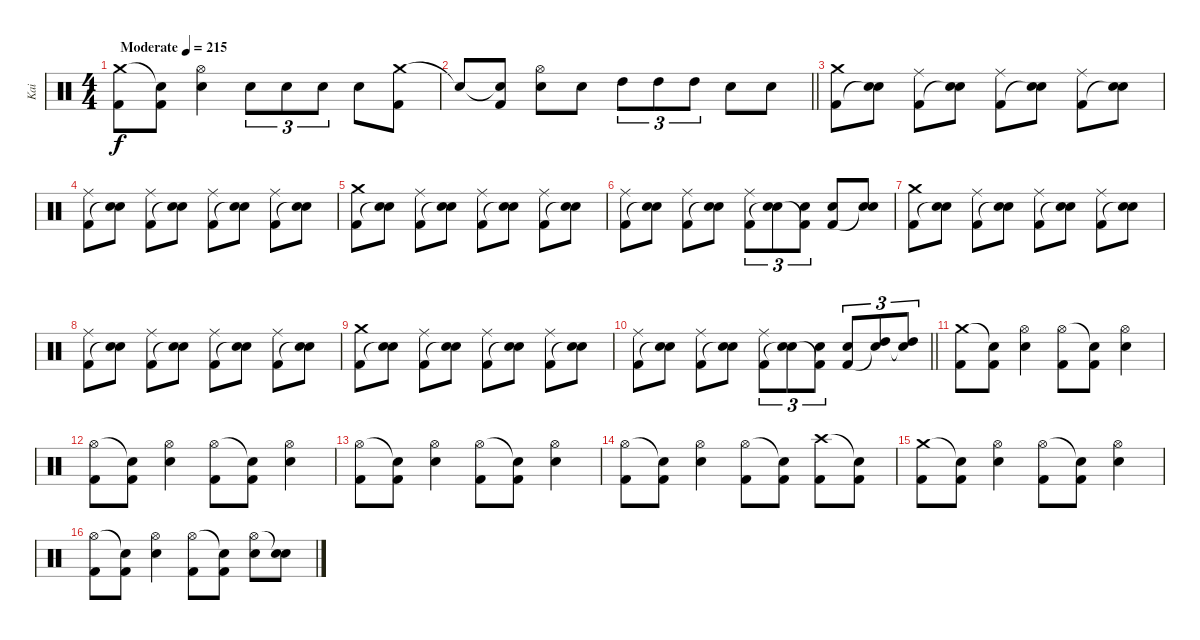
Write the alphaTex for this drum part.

\track ("Kai" "Kai") {instrument percussion}
\staff {score}
\articulation defaults
\ts (4 4)
\tempo (215 "Moderate")
\clef neutral
\ks c
("Crash medium (hit)" "Kick (hit) 2").8{dy f} ("Snare (hit)"{t} "Kick (hit) 2").8 ("Hi-Hat (open)" "Snare (hit) 2").4 "Snare (hit) 2".8{tu (3 2)} "Snare (hit) 2".8{tu (3 2)} "Snare (hit) 2".8{tu (3 2)} "Snare (hit) 2".8 ("Crash medium (hit)" "Kick (hit) 2").8 |
\barLineRight lightlight "Snare (hit)"{t}.8
("Snare (hit)"{t} "Kick (hit) 2").8 ("Hi-Hat (open)" "Snare (hit) 2").8 "Snare (hit) 2".8 "High Tom (hit)".8{tu (3 2)} "High Tom (hit)".8{tu (3 2)} "High Tom (hit)".8{tu (3 2)} "Snare (hit) 2".8 "Snare (hit) 2".8 |
("Crash medium (hit)" "Kick (hit) 2").8 ("Snare (hit) 2" "Snare (hit)"{t}).8 ("Ride (middle)" "Kick (hit) 2").8 ("Snare (hit) 2" "Snare (hit)"{t}).8 ("Ride (middle)" "Kick (hit) 2").8 ("Snare (hit) 2" "Snare (hit)"{t}).8 ("Ride (middle)" "Kick (hit) 2").8 ("Snare (hit) 2" "Snare (hit)"{t}).8 |
("Ride (middle)" "Kick (hit) 2").8 ("Snare (hit) 2" "Snare (hit)"{t}).8 ("Ride (middle)" "Kick (hit) 2").8 ("Snare (hit) 2" "Snare (hit)"{t}).8 ("Ride (middle)" "Kick (hit) 2").8 ("Snare (hit) 2" "Snare (hit)"{t}).8 ("Ride (middle)" "Kick (hit) 2").8 ("Snare (hit) 2" "Snare (hit)"{t}).8 |
("Crash medium (hit)" "Kick (hit) 2").8 ("Snare (hit) 2" "Snare (hit)"{t}).8 ("Ride (middle)" "Kick (hit) 2").8 ("Snare (hit) 2" "Snare (hit)"{t}).8 ("Ride (middle)" "Kick (hit) 2").8 ("Snare (hit) 2" "Snare (hit)"{t}).8 ("Ride (middle)" "Kick (hit) 2").8 ("Snare (hit) 2" "Snare (hit)"{t}).8 |
("Ride (middle)" "Kick (hit) 2").8 ("Snare (hit) 2" "Snare (hit)"{t}).8 ("Ride (middle)" "Kick (hit) 2").8 ("Snare (hit) 2" "Snare (hit)"{t}).8 ("Ride (middle)" "Kick (hit) 2").8{tu (3 2)} ("Snare (hit) 2" "Snare (hit)"{t}).8{tu (3 2)} ("Snare (hit) 2" "Kick (hit) 2"{t}).8{tu (3 2)} ("Snare (hit) 2" "Kick (hit) 2").8 ("Snare (hit) 2" "Snare (hit)"{t}).8 |
("Crash medium (hit)" "Kick (hit) 2").8 ("Snare (hit) 2" "Snare (hit)"{t}).8 ("Ride (middle)" "Kick (hit) 2").8 ("Snare (hit) 2" "Snare (hit)"{t}).8 ("Ride (middle)" "Kick (hit) 2").8 ("Snare (hit) 2" "Snare (hit)"{t}).8 ("Ride (middle)" "Kick (hit) 2").8 ("Snare (hit) 2" "Snare (hit)"{t}).8 |
("Ride (middle)" "Kick (hit) 2").8 ("Snare (hit) 2" "Snare (hit)"{t}).8 ("Ride (middle)" "Kick (hit) 2").8 ("Snare (hit) 2" "Snare (hit)"{t}).8 ("Ride (middle)" "Kick (hit) 2").8 ("Snare (hit) 2" "Snare (hit)"{t}).8 ("Ride (middle)" "Kick (hit) 2").8 ("Snare (hit) 2" "Snare (hit)"{t}).8 |
("Crash medium (hit)" "Kick (hit) 2").8 ("Snare (hit) 2" "Snare (hit)"{t}).8 ("Ride (middle)" "Kick (hit) 2").8 ("Snare (hit) 2" "Snare (hit)"{t}).8 ("Ride (middle)" "Kick (hit) 2").8 ("Snare (hit) 2" "Snare (hit)"{t}).8 ("Ride (middle)" "Kick (hit) 2").8 ("Snare (hit) 2" "Snare (hit)"{t}).8 |
\barLineRight lightlight
("Ride (middle)" "Kick (hit) 2").8 ("Snare (hit) 2" "Snare (hit)"{t}).8 ("Ride (middle)" "Kick (hit) 2").8 ("Snare (hit) 2" "Snare (hit)"{t}).8 ("Ride (middle)" "Kick (hit) 2").8{tu (3 2)} ("Snare (hit) 2" "Snare (hit)"{t}).8{tu (3 2)} ("Snare (hit) 2" "Kick (hit) 2"{t}).8{tu (3 2)} ("Snare (hit) 2" "Kick (hit) 2").8{tu (3 2)} ("High Tom (hit)" "Snare (hit)"{t}).8{tu (3 2)} ("High Tom (hit)" "Snare (hit)"{t}).8{tu (3 2)} |
("Crash medium (hit)" "Kick (hit) 2").8 ("Snare (hit)"{t} "Kick (hit) 2").8 ("Hi-Hat (open)" "Snare (hit) 2").4 ("Hi-Hat (open)" "Kick (hit) 2").8 ("Snare (hit)"{t} "Kick (hit) 2").8 ("Hi-Hat (open)" "Snare (hit) 2").4 |
("Hi-Hat (open)" "Kick (hit) 2").8 ("Snare (hit)"{t} "Kick (hit) 2").8 ("Hi-Hat (open)" "Snare (hit) 2").4 ("Hi-Hat (open)" "Kick (hit) 2").8 ("Snare (hit)"{t} "Kick (hit) 2").8 ("Hi-Hat (open)" "Snare (hit) 2").4 |
("Hi-Hat (open)" "Kick (hit) 2").8 ("Snare (hit)"{t} "Kick (hit) 2").8 ("Hi-Hat (open)" "Snare (hit) 2").4 ("Hi-Hat (open)" "Kick (hit) 2").8 ("Snare (hit)"{t} "Kick (hit) 2").8 ("Hi-Hat (open)" "Snare (hit) 2").4 |
("Hi-Hat (open)" "Kick (hit) 2").8 ("Snare (hit)"{t} "Kick (hit) 2").8 ("Hi-Hat (open)" "Snare (hit) 2").4 ("Hi-Hat (open)" "Kick (hit) 2").8 ("Snare (hit)"{t} "Kick (hit) 2").8 ("Crash high (hit)" "Kick (hit) 2").8 ("Snare (hit)"{t} "Kick (hit) 2").8 |
("Crash medium (hit)" "Kick (hit) 2").8 ("Snare (hit)"{t} "Kick (hit) 2").8 ("Hi-Hat (open)" "Snare (hit) 2").4 ("Hi-Hat (open)" "Kick (hit) 2").8 ("Snare (hit)"{t} "Kick (hit) 2").8 ("Hi-Hat (open)" "Snare (hit) 2").4 |
("Hi-Hat (open)" "Kick (hit) 2").8 ("Snare (hit)"{t} "Kick (hit) 2").8 ("Hi-Hat (open)" "Snare (hit) 2").4 ("Hi-Hat (open)" "Kick (hit) 2").8 ("Snare (hit)"{t} "Kick (hit) 2").8 ("Hi-Hat (open)" "Snare (hit) 2").8 ("Snare (hit)"{t} "Snare (hit) 2").8
